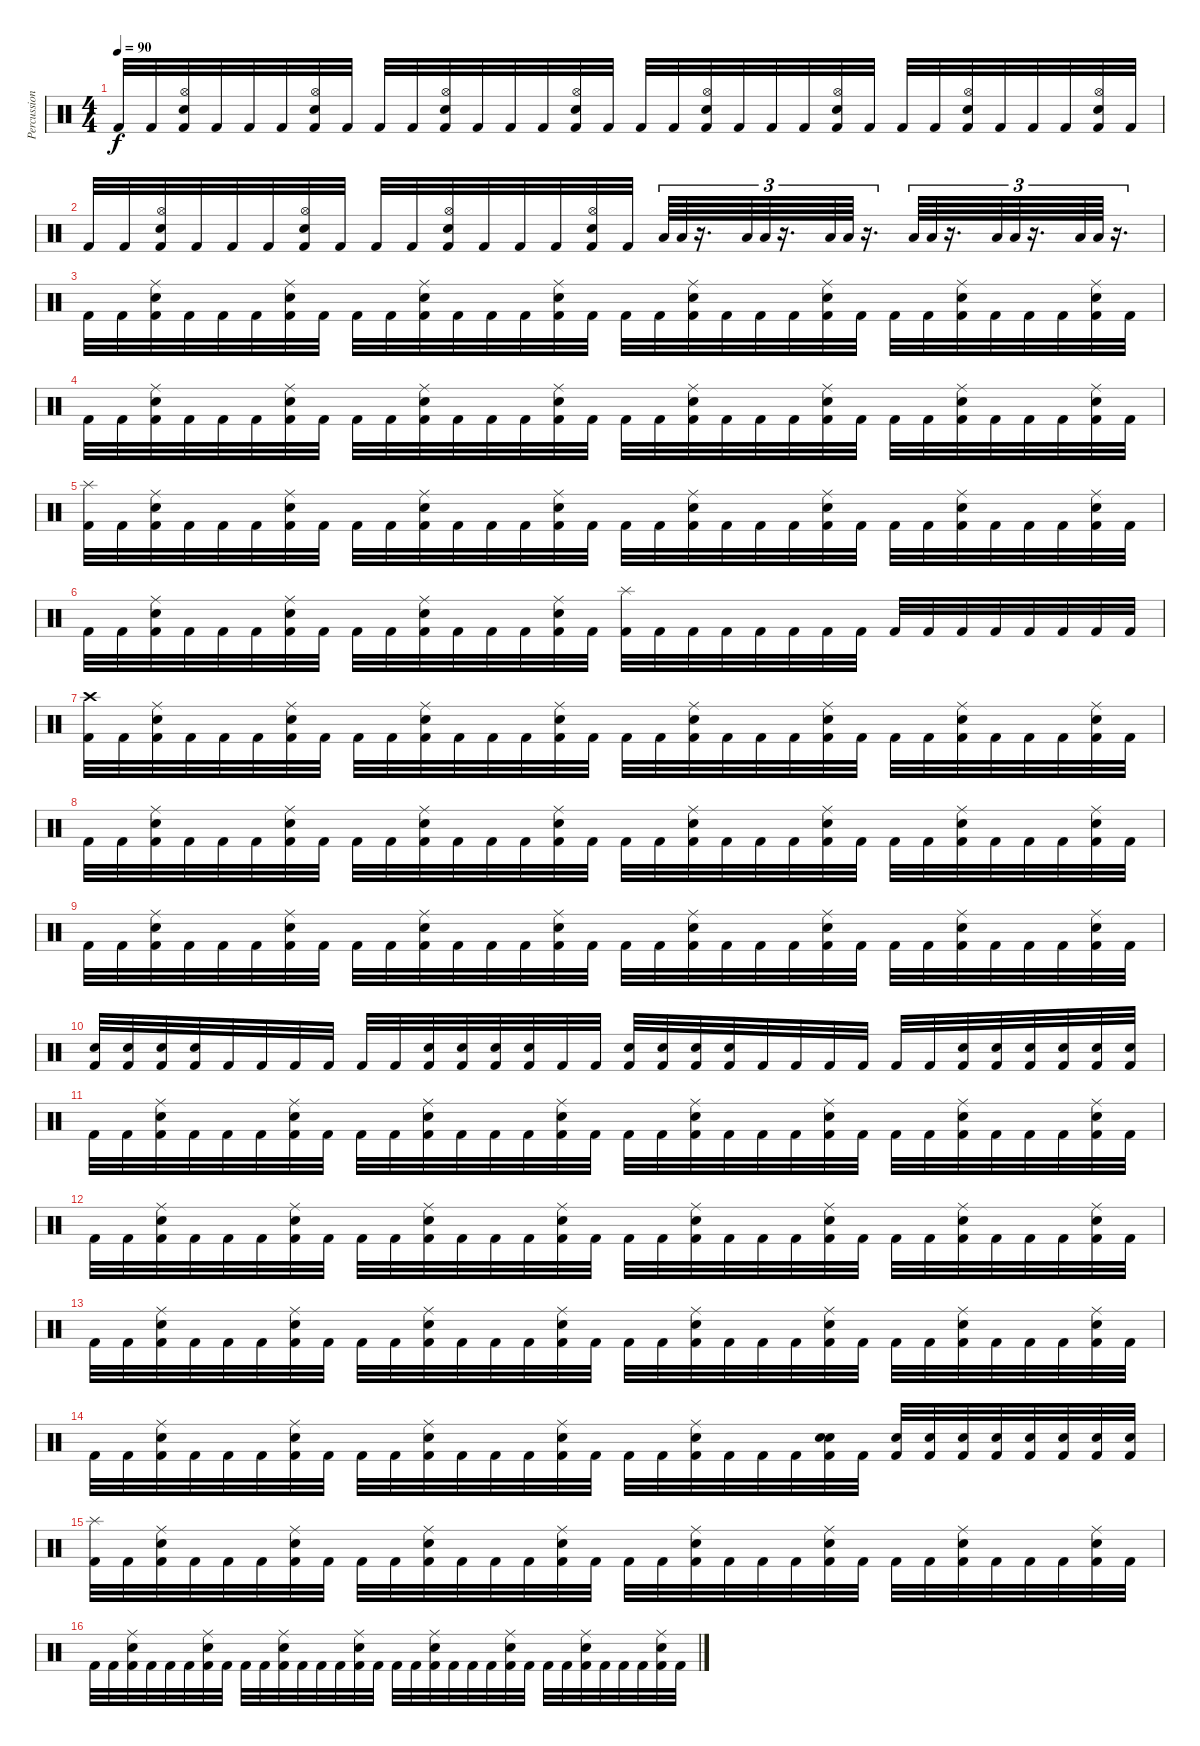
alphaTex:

\track ("Percussions" "Percussion") {instrument percussion}
\staff {score}
\articulation defaults
\ts (4 4)
\tempo 90
\clef neutral
\ks c "Kick (hit) 2".32{dy f} "Kick (hit) 2".32
("Hi-Hat (open)" "Electric Snare (hit)" "Kick (hit) 2").32 "Kick (hit) 2".32 "Kick (hit) 2".32 "Kick (hit) 2".32 ("Hi-Hat (open)" "Electric Snare (hit)" "Kick (hit) 2").32 "Kick (hit) 2".32 "Kick (hit) 2".32 "Kick (hit) 2".32 ("Hi-Hat (open)" "Electric Snare (hit)" "Kick (hit) 2").32 "Kick (hit) 2".32 "Kick (hit) 2".32 "Kick (hit) 2".32 ("Hi-Hat (open)" "Electric Snare (hit)" "Kick (hit) 2").32 "Kick (hit) 2".32 "Kick (hit) 2".32 "Kick (hit) 2".32 ("Hi-Hat (open)" "Electric Snare (hit)" "Kick (hit) 2").32 "Kick (hit) 2".32 "Kick (hit) 2".32 "Kick (hit) 2".32 ("Hi-Hat (open)" "Electric Snare (hit)" "Kick (hit) 2").32 "Kick (hit) 2".32 "Kick (hit) 2".32 "Kick (hit) 2".32 ("Hi-Hat (open)" "Electric Snare (hit)" "Kick (hit) 2").32 "Kick (hit) 2".32 "Kick (hit) 2".32 "Kick (hit) 2".32 ("Hi-Hat (open)" "Electric Snare (hit)" "Kick (hit) 2").32 "Kick (hit) 2".32 |
"Kick (hit) 2".32 "Kick (hit) 2".32 ("Hi-Hat (open)" "Electric Snare (hit)" "Kick (hit) 2").32 "Kick (hit) 2".32 "Kick (hit) 2".32 "Kick (hit) 2".32 ("Hi-Hat (open)" "Electric Snare (hit)" "Kick (hit) 2").32 "Kick (hit) 2".32 "Kick (hit) 2".32 "Kick (hit) 2".32 ("Hi-Hat (open)" "Electric Snare (hit)" "Kick (hit) 2").32 "Kick (hit) 2".32 "Kick (hit) 2".32 "Kick (hit) 2".32 ("Hi-Hat (open)" "Electric Snare (hit)" "Kick (hit) 2").32 "Kick (hit) 2".32 "Low Tom (hit)".64{tu (3 2)} "Low Tom (hit)".64{tu (3 2)} r.16{d tu (3 2)} "Low Tom (hit)".64{tu (3 2)} "Low Tom (hit)".64{tu (3 2)} r.16{d tu (3 2)} "Low Tom (hit)".64{tu (3 2)} "Low Tom (hit)".64{tu (3 2)} r.16{d tu (3 2)} "Low Tom (hit)".64{tu (3 2)} "Low Tom (hit)".64{tu (3 2)} r.16{d tu (3 2)} "Low Tom (hit)".64{tu (3 2)} "Low Tom (hit)".64{tu (3 2)} r.16{d tu (3 2)} "Low Tom (hit)".64{tu (3 2)} "Low Tom (hit)".64{tu (3 2)} r.16{d tu (3 2)} |
"Kick (hit) 2".32 "Kick (hit) 2".32 ("Ride (middle)" "Electric Snare (hit)" "Kick (hit) 2").32 "Kick (hit) 2".32 "Kick (hit) 2".32 "Kick (hit) 2".32 ("Ride (middle)" "Electric Snare (hit)" "Kick (hit) 2").32 "Kick (hit) 2".32 "Kick (hit) 2".32 "Kick (hit) 2".32 ("Ride (middle)" "Electric Snare (hit)" "Kick (hit) 2").32 "Kick (hit) 2".32 "Kick (hit) 2".32 "Kick (hit) 2".32 ("Ride (middle)" "Electric Snare (hit)" "Kick (hit) 2").32 "Kick (hit) 2".32 "Kick (hit) 2".32 "Kick (hit) 2".32 ("Ride (middle)" "Electric Snare (hit)" "Kick (hit) 2").32 "Kick (hit) 2".32 "Kick (hit) 2".32 "Kick (hit) 2".32 ("Ride (middle)" "Electric Snare (hit)" "Kick (hit) 2").32 "Kick (hit) 2".32 "Kick (hit) 2".32 "Kick (hit) 2".32 ("Ride (middle)" "Electric Snare (hit)" "Kick (hit) 2").32 "Kick (hit) 2".32 "Kick (hit) 2".32 "Kick (hit) 2".32 ("Ride (middle)" "Electric Snare (hit)" "Kick (hit) 2").32 "Kick (hit) 2".32 |
"Kick (hit) 2".32 "Kick (hit) 2".32 ("Ride (middle)" "Electric Snare (hit)" "Kick (hit) 2").32 "Kick (hit) 2".32 "Kick (hit) 2".32 "Kick (hit) 2".32 ("Ride (middle)" "Electric Snare (hit)" "Kick (hit) 2").32 "Kick (hit) 2".32 "Kick (hit) 2".32 "Kick (hit) 2".32 ("Ride (middle)" "Electric Snare (hit)" "Kick (hit) 2").32 "Kick (hit) 2".32 "Kick (hit) 2".32 "Kick (hit) 2".32 ("Ride (middle)" "Electric Snare (hit)" "Kick (hit) 2").32 "Kick (hit) 2".32 "Kick (hit) 2".32 "Kick (hit) 2".32 ("Ride (middle)" "Electric Snare (hit)" "Kick (hit) 2").32 "Kick (hit) 2".32 "Kick (hit) 2".32 "Kick (hit) 2".32 ("Ride (middle)" "Electric Snare (hit)" "Kick (hit) 2").32 "Kick (hit) 2".32 "Kick (hit) 2".32 "Kick (hit) 2".32 ("Ride (middle)" "Electric Snare (hit)" "Kick (hit) 2").32 "Kick (hit) 2".32 "Kick (hit) 2".32 "Kick (hit) 2".32 ("Ride (middle)" "Electric Snare (hit)" "Kick (hit) 2").32 "Kick (hit) 2".32 |
("Splash (hit)" "Kick (hit) 2").32 "Kick (hit) 2".32 ("Ride (middle)" "Electric Snare (hit)" "Kick (hit) 2").32 "Kick (hit) 2".32 "Kick (hit) 2".32 "Kick (hit) 2".32 ("Ride (middle)" "Electric Snare (hit)" "Kick (hit) 2").32 "Kick (hit) 2".32 "Kick (hit) 2".32 "Kick (hit) 2".32 ("Ride (middle)" "Electric Snare (hit)" "Kick (hit) 2").32 "Kick (hit) 2".32 "Kick (hit) 2".32 "Kick (hit) 2".32 ("Ride (middle)" "Electric Snare (hit)" "Kick (hit) 2").32 "Kick (hit) 2".32 "Kick (hit) 2".32 "Kick (hit) 2".32 ("Ride (middle)" "Electric Snare (hit)" "Kick (hit) 2").32 "Kick (hit) 2".32 "Kick (hit) 2".32 "Kick (hit) 2".32 ("Ride (middle)" "Electric Snare (hit)" "Kick (hit) 2").32 "Kick (hit) 2".32 "Kick (hit) 2".32 "Kick (hit) 2".32 ("Ride (middle)" "Electric Snare (hit)" "Kick (hit) 2").32 "Kick (hit) 2".32 "Kick (hit) 2".32 "Kick (hit) 2".32 ("Ride (middle)" "Electric Snare (hit)" "Kick (hit) 2").32 "Kick (hit) 2".32 |
"Kick (hit) 2".32 "Kick (hit) 2".32 ("Ride (middle)" "Electric Snare (hit)" "Kick (hit) 2").32 "Kick (hit) 2".32 "Kick (hit) 2".32 "Kick (hit) 2".32 ("Ride (middle)" "Electric Snare (hit)" "Kick (hit) 2").32 "Kick (hit) 2".32 "Kick (hit) 2".32 "Kick (hit) 2".32 ("Ride (middle)" "Electric Snare (hit)" "Kick (hit) 2").32 "Kick (hit) 2".32 "Kick (hit) 2".32 "Kick (hit) 2".32 ("Ride (middle)" "Electric Snare (hit)" "Kick (hit) 2").32 "Kick (hit) 2".32 ("Splash (hit)" "Kick (hit) 2").32 "Kick (hit) 2".32 "Kick (hit) 2".32 "Kick (hit) 2".32 "Kick (hit) 2".32 "Kick (hit) 2".32 "Kick (hit) 2".32 "Kick (hit) 2".32 "Kick (hit) 2".32 "Kick (hit) 2".32 "Kick (hit) 2".32 "Kick (hit) 2".32 "Kick (hit) 2".32 "Kick (hit) 2".32 "Kick (hit) 2".32 "Kick (hit) 2".32 |
("Crash high (hit)" "Kick (hit) 2").32 "Kick (hit) 2".32 ("Ride (middle)" "Electric Snare (hit)" "Kick (hit) 2").32 "Kick (hit) 2".32 "Kick (hit) 2".32 "Kick (hit) 2".32 ("Ride (middle)" "Electric Snare (hit)" "Kick (hit) 2").32 "Kick (hit) 2".32 "Kick (hit) 2".32 "Kick (hit) 2".32 ("Ride (middle)" "Electric Snare (hit)" "Kick (hit) 2").32 "Kick (hit) 2".32 "Kick (hit) 2".32 "Kick (hit) 2".32 ("Ride (middle)" "Electric Snare (hit)" "Kick (hit) 2").32 "Kick (hit) 2".32 "Kick (hit) 2".32 "Kick (hit) 2".32 ("Ride (middle)" "Electric Snare (hit)" "Kick (hit) 2").32 "Kick (hit) 2".32 "Kick (hit) 2".32 "Kick (hit) 2".32 ("Ride (middle)" "Electric Snare (hit)" "Kick (hit) 2").32 "Kick (hit) 2".32 "Kick (hit) 2".32 "Kick (hit) 2".32 ("Ride (middle)" "Electric Snare (hit)" "Kick (hit) 2").32 "Kick (hit) 2".32 "Kick (hit) 2".32 "Kick (hit) 2".32 ("Ride (middle)" "Electric Snare (hit)" "Kick (hit) 2").32 "Kick (hit) 2".32 |
"Kick (hit) 2".32 "Kick (hit) 2".32 ("Ride (middle)" "Electric Snare (hit)" "Kick (hit) 2").32 "Kick (hit) 2".32 "Kick (hit) 2".32 "Kick (hit) 2".32 ("Ride (middle)" "Electric Snare (hit)" "Kick (hit) 2").32 "Kick (hit) 2".32 "Kick (hit) 2".32 "Kick (hit) 2".32 ("Ride (middle)" "Electric Snare (hit)" "Kick (hit) 2").32 "Kick (hit) 2".32 "Kick (hit) 2".32 "Kick (hit) 2".32 ("Ride (middle)" "Electric Snare (hit)" "Kick (hit) 2").32 "Kick (hit) 2".32 "Kick (hit) 2".32 "Kick (hit) 2".32 ("Ride (middle)" "Electric Snare (hit)" "Kick (hit) 2").32 "Kick (hit) 2".32 "Kick (hit) 2".32 "Kick (hit) 2".32 ("Ride (middle)" "Electric Snare (hit)" "Kick (hit) 2").32 "Kick (hit) 2".32 "Kick (hit) 2".32 "Kick (hit) 2".32 ("Ride (middle)" "Electric Snare (hit)" "Kick (hit) 2").32 "Kick (hit) 2".32 "Kick (hit) 2".32 "Kick (hit) 2".32 ("Ride (middle)" "Electric Snare (hit)" "Kick (hit) 2").32 "Kick (hit) 2".32 |
"Kick (hit) 2".32 "Kick (hit) 2".32 ("Ride (middle)" "Electric Snare (hit)" "Kick (hit) 2").32 "Kick (hit) 2".32 "Kick (hit) 2".32 "Kick (hit) 2".32 ("Ride (middle)" "Electric Snare (hit)" "Kick (hit) 2").32 "Kick (hit) 2".32 "Kick (hit) 2".32 "Kick (hit) 2".32 ("Ride (middle)" "Electric Snare (hit)" "Kick (hit) 2").32 "Kick (hit) 2".32 "Kick (hit) 2".32 "Kick (hit) 2".32 ("Ride (middle)" "Electric Snare (hit)" "Kick (hit) 2").32 "Kick (hit) 2".32 "Kick (hit) 2".32 "Kick (hit) 2".32 ("Ride (middle)" "Electric Snare (hit)" "Kick (hit) 2").32 "Kick (hit) 2".32 "Kick (hit) 2".32 "Kick (hit) 2".32 ("Ride (middle)" "Electric Snare (hit)" "Kick (hit) 2").32 "Kick (hit) 2".32 "Kick (hit) 2".32 "Kick (hit) 2".32 ("Ride (middle)" "Electric Snare (hit)" "Kick (hit) 2").32 "Kick (hit) 2".32 "Kick (hit) 2".32 "Kick (hit) 2".32 ("Ride (middle)" "Electric Snare (hit)" "Kick (hit) 2").32 "Kick (hit) 2".32 |
("Electric Snare (hit)" "Kick (hit) 2").32 ("Electric Snare (hit)" "Kick (hit) 2").32 ("Electric Snare (hit)" "Kick (hit) 2").32 ("Electric Snare (hit)" "Kick (hit) 2").32 "Kick (hit) 2".32 "Kick (hit) 2".32 "Kick (hit) 2".32 "Kick (hit) 2".32 "Kick (hit) 2".32 "Kick (hit) 2".32 ("Electric Snare (hit)" "Kick (hit) 2").32 ("Electric Snare (hit)" "Kick (hit) 2").32 ("Electric Snare (hit)" "Kick (hit) 2").32 ("Electric Snare (hit)" "Kick (hit) 2").32 "Kick (hit) 2".32 "Kick (hit) 2".32 ("Electric Snare (hit)" "Kick (hit) 2").32 ("Electric Snare (hit)" "Kick (hit) 2").32 ("Electric Snare (hit)" "Kick (hit) 2").32 ("Electric Snare (hit)" "Kick (hit) 2").32 "Kick (hit) 2".32 "Kick (hit) 2".32 "Kick (hit) 2".32 "Kick (hit) 2".32 "Kick (hit) 2".32 "Kick (hit) 2".32 ("Electric Snare (hit)" "Kick (hit) 2").32 ("Electric Snare (hit)" "Kick (hit) 2").32 ("Electric Snare (hit)" "Kick (hit) 2").32 ("Electric Snare (hit)" "Kick (hit) 2").32 ("Electric Snare (hit)" "Kick (hit) 2").32 ("Electric Snare (hit)" "Kick (hit) 2").32 |
"Kick (hit) 2".32 "Kick (hit) 2".32 ("Ride (middle)" "Electric Snare (hit)" "Kick (hit) 2").32 "Kick (hit) 2".32 "Kick (hit) 2".32 "Kick (hit) 2".32 ("Ride (middle)" "Electric Snare (hit)" "Kick (hit) 2").32 "Kick (hit) 2".32 "Kick (hit) 2".32 "Kick (hit) 2".32 ("Ride (middle)" "Electric Snare (hit)" "Kick (hit) 2").32 "Kick (hit) 2".32 "Kick (hit) 2".32 "Kick (hit) 2".32 ("Ride (middle)" "Electric Snare (hit)" "Kick (hit) 2").32 "Kick (hit) 2".32 "Kick (hit) 2".32 "Kick (hit) 2".32 ("Ride (middle)" "Electric Snare (hit)" "Kick (hit) 2").32 "Kick (hit) 2".32 "Kick (hit) 2".32 "Kick (hit) 2".32 ("Ride (middle)" "Electric Snare (hit)" "Kick (hit) 2").32 "Kick (hit) 2".32 "Kick (hit) 2".32 "Kick (hit) 2".32 ("Ride (middle)" "Electric Snare (hit)" "Kick (hit) 2").32 "Kick (hit) 2".32 "Kick (hit) 2".32 "Kick (hit) 2".32 ("Ride (middle)" "Electric Snare (hit)" "Kick (hit) 2").32 "Kick (hit) 2".32 |
"Kick (hit) 2".32 "Kick (hit) 2".32 ("Ride (middle)" "Electric Snare (hit)" "Kick (hit) 2").32 "Kick (hit) 2".32 "Kick (hit) 2".32 "Kick (hit) 2".32 ("Ride (middle)" "Electric Snare (hit)" "Kick (hit) 2").32 "Kick (hit) 2".32 "Kick (hit) 2".32 "Kick (hit) 2".32 ("Ride (middle)" "Electric Snare (hit)" "Kick (hit) 2").32 "Kick (hit) 2".32 "Kick (hit) 2".32 "Kick (hit) 2".32 ("Ride (middle)" "Electric Snare (hit)" "Kick (hit) 2").32 "Kick (hit) 2".32 "Kick (hit) 2".32 "Kick (hit) 2".32 ("Ride (middle)" "Electric Snare (hit)" "Kick (hit) 2").32 "Kick (hit) 2".32 "Kick (hit) 2".32 "Kick (hit) 2".32 ("Ride (middle)" "Electric Snare (hit)" "Kick (hit) 2").32 "Kick (hit) 2".32 "Kick (hit) 2".32 "Kick (hit) 2".32 ("Ride (middle)" "Electric Snare (hit)" "Kick (hit) 2").32 "Kick (hit) 2".32 "Kick (hit) 2".32 "Kick (hit) 2".32 ("Ride (middle)" "Electric Snare (hit)" "Kick (hit) 2").32 "Kick (hit) 2".32 |
"Kick (hit) 2".32 "Kick (hit) 2".32 ("Ride (middle)" "Electric Snare (hit)" "Kick (hit) 2").32 "Kick (hit) 2".32 "Kick (hit) 2".32 "Kick (hit) 2".32 ("Ride (middle)" "Electric Snare (hit)" "Kick (hit) 2").32 "Kick (hit) 2".32 "Kick (hit) 2".32 "Kick (hit) 2".32 ("Ride (middle)" "Electric Snare (hit)" "Kick (hit) 2").32 "Kick (hit) 2".32 "Kick (hit) 2".32 "Kick (hit) 2".32 ("Ride (middle)" "Electric Snare (hit)" "Kick (hit) 2").32 "Kick (hit) 2".32 "Kick (hit) 2".32 "Kick (hit) 2".32 ("Ride (middle)" "Electric Snare (hit)" "Kick (hit) 2").32 "Kick (hit) 2".32 "Kick (hit) 2".32 "Kick (hit) 2".32 ("Ride (middle)" "Electric Snare (hit)" "Kick (hit) 2").32 "Kick (hit) 2".32 "Kick (hit) 2".32 "Kick (hit) 2".32 ("Ride (middle)" "Electric Snare (hit)" "Kick (hit) 2").32 "Kick (hit) 2".32 "Kick (hit) 2".32 "Kick (hit) 2".32 ("Ride (middle)" "Electric Snare (hit)" "Kick (hit) 2").32 "Kick (hit) 2".32 |
"Kick (hit) 2".32 "Kick (hit) 2".32 ("Ride (middle)" "Electric Snare (hit)" "Kick (hit) 2").32 "Kick (hit) 2".32 "Kick (hit) 2".32 "Kick (hit) 2".32 ("Ride (middle)" "Electric Snare (hit)" "Kick (hit) 2").32 "Kick (hit) 2".32 "Kick (hit) 2".32 "Kick (hit) 2".32 ("Ride (middle)" "Electric Snare (hit)" "Kick (hit) 2").32 "Kick (hit) 2".32 "Kick (hit) 2".32 "Kick (hit) 2".32 ("Ride (middle)" "Electric Snare (hit)" "Kick (hit) 2").32 "Kick (hit) 2".32 "Kick (hit) 2".32 "Kick (hit) 2".32 ("Ride (middle)" "Electric Snare (hit)" "Kick (hit) 2").32 "Kick (hit) 2".32 "Kick (hit) 2".32 "Kick (hit) 2".32 ("Snare (hit)" "Electric Snare (hit)" "Kick (hit) 2").32 "Kick (hit) 2".32 ("Electric Snare (hit)" "Kick (hit) 2").32 ("Electric Snare (hit)" "Kick (hit) 2").32 ("Electric Snare (hit)" "Kick (hit) 2").32 ("Electric Snare (hit)" "Kick (hit) 2").32 ("Electric Snare (hit)" "Kick (hit) 2").32 ("Electric Snare (hit)" "Kick (hit) 2").32 ("Electric Snare (hit)" "Kick (hit) 2").32 ("Electric Snare (hit)" "Kick (hit) 2").32 |
("Splash (hit)" "Kick (hit) 2").32 "Kick (hit) 2".32 ("Ride (middle)" "Electric Snare (hit)" "Kick (hit) 2").32 "Kick (hit) 2".32 "Kick (hit) 2".32 "Kick (hit) 2".32 ("Ride (middle)" "Electric Snare (hit)" "Kick (hit) 2").32 "Kick (hit) 2".32 "Kick (hit) 2".32 "Kick (hit) 2".32 ("Ride (middle)" "Electric Snare (hit)" "Kick (hit) 2").32 "Kick (hit) 2".32 "Kick (hit) 2".32 "Kick (hit) 2".32 ("Ride (middle)" "Electric Snare (hit)" "Kick (hit) 2").32 "Kick (hit) 2".32 "Kick (hit) 2".32 "Kick (hit) 2".32 ("Ride (middle)" "Electric Snare (hit)" "Kick (hit) 2").32 "Kick (hit) 2".32 "Kick (hit) 2".32 "Kick (hit) 2".32 ("Ride (middle)" "Electric Snare (hit)" "Kick (hit) 2").32 "Kick (hit) 2".32 "Kick (hit) 2".32 "Kick (hit) 2".32 ("Ride (middle)" "Electric Snare (hit)" "Kick (hit) 2").32 "Kick (hit) 2".32 "Kick (hit) 2".32 "Kick (hit) 2".32 ("Ride (middle)" "Electric Snare (hit)" "Kick (hit) 2").32 "Kick (hit) 2".32 |
"Kick (hit) 2".32 "Kick (hit) 2".32 ("Ride (middle)" "Electric Snare (hit)" "Kick (hit) 2").32 "Kick (hit) 2".32 "Kick (hit) 2".32 "Kick (hit) 2".32 ("Ride (middle)" "Electric Snare (hit)" "Kick (hit) 2").32 "Kick (hit) 2".32 "Kick (hit) 2".32 "Kick (hit) 2".32 ("Ride (middle)" "Electric Snare (hit)" "Kick (hit) 2").32 "Kick (hit) 2".32 "Kick (hit) 2".32 "Kick (hit) 2".32 ("Ride (middle)" "Electric Snare (hit)" "Kick (hit) 2").32 "Kick (hit) 2".32 "Kick (hit) 2".32 "Kick (hit) 2".32 ("Ride (middle)" "Electric Snare (hit)" "Kick (hit) 2").32 "Kick (hit) 2".32 "Kick (hit) 2".32 "Kick (hit) 2".32 ("Ride (middle)" "Electric Snare (hit)" "Kick (hit) 2").32 "Kick (hit) 2".32 "Kick (hit) 2".32 "Kick (hit) 2".32 ("Ride (middle)" "Electric Snare (hit)" "Kick (hit) 2").32 "Kick (hit) 2".32 "Kick (hit) 2".32 "Kick (hit) 2".32 ("Ride (middle)" "Electric Snare (hit)" "Kick (hit) 2").32 "Kick (hit) 2".32
